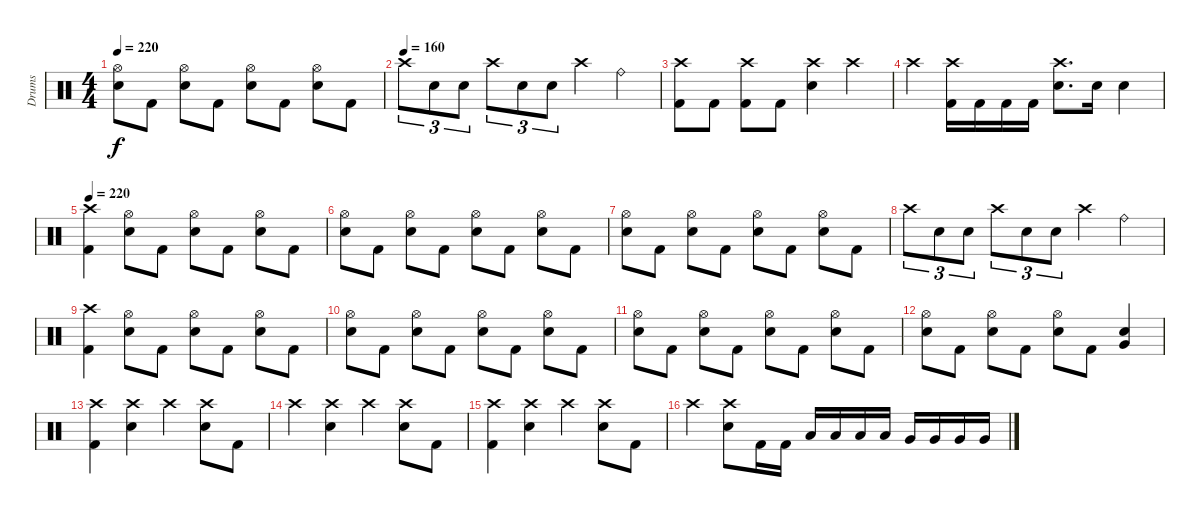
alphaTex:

\track ("Drums" "Drums") {instrument percussion}
\staff {score}
\articulation defaults
\ts (4 4)
\tempo 220
\clef neutral
\ks c
("Hi-Hat (open)" "Electric Snare (hit)").8{dy f} "Kick (hit) 2".8 ("Hi-Hat (open)" "Electric Snare (hit)").8 "Kick (hit) 2".8 ("Hi-Hat (open)" "Electric Snare (hit)").8 "Kick (hit) 2".8 ("Hi-Hat (open)" "Electric Snare (hit)").8 "Kick (hit) 2".8 |
\tempo (160)
"Crash high (hit)".8{tu (3 2)} "Electric Snare (hit)".8{tu (3 2)} "Electric Snare (hit)".8{tu (3 2)} "Crash high (hit)".8{tu (3 2)} "Electric Snare (hit)".8{tu (3 2)} "Electric Snare (hit)".8{tu (3 2)} "Crash high (hit)".4 "Ride (bell)".4 |
("Crash high (hit)" "Kick (hit) 2").8 "Kick (hit) 2".8 ("Crash high (hit)" "Kick (hit) 2").8 "Kick (hit) 2".8 ("Crash high (hit)" "Electric Snare (hit)").4 "Crash high (hit)".4 |
"Crash high (hit)".4 ("Crash high (hit)" "Kick (hit) 2").16 "Kick (hit) 2".16 "Kick (hit) 2".16 "Kick (hit) 2".16 ("Crash high (hit)" "Electric Snare (hit)").8{d} "Electric Snare (hit)".16 "Electric Snare (hit)".4 |
\tempo 220
("Crash high (hit)" "Kick (hit) 2").4 ("Hi-Hat (open)" "Electric Snare (hit)").8 "Kick (hit) 2".8 ("Hi-Hat (open)" "Electric Snare (hit)").8 "Kick (hit) 2".8 ("Hi-Hat (open)" "Electric Snare (hit)").8 "Kick (hit) 2".8 |
("Hi-Hat (open)" "Electric Snare (hit)").8 "Kick (hit) 2".8 ("Hi-Hat (open)" "Electric Snare (hit)").8 "Kick (hit) 2".8 ("Hi-Hat (open)" "Electric Snare (hit)").8 "Kick (hit) 2".8 ("Hi-Hat (open)" "Electric Snare (hit)").8 "Kick (hit) 2".8 |
("Hi-Hat (open)" "Electric Snare (hit)").8 "Kick (hit) 2".8 ("Hi-Hat (open)" "Electric Snare (hit)").8 "Kick (hit) 2".8 ("Hi-Hat (open)" "Electric Snare (hit)").8 "Kick (hit) 2".8 ("Hi-Hat (open)" "Electric Snare (hit)").8 "Kick (hit) 2".8 |
"Crash high (hit)".8{tu (3 2)} "Electric Snare (hit)".8{tu (3 2)} "Electric Snare (hit)".8{tu (3 2)} "Crash high (hit)".8{tu (3 2)} "Electric Snare (hit)".8{tu (3 2)} "Electric Snare (hit)".8{tu (3 2)} "Crash high (hit)".4 "Ride (bell)".4 |
("Crash high (hit)" "Kick (hit) 2").4 ("Hi-Hat (open)" "Electric Snare (hit)").8 "Kick (hit) 2".8 ("Hi-Hat (open)" "Electric Snare (hit)").8 "Kick (hit) 2".8 ("Hi-Hat (open)" "Electric Snare (hit)").8 "Kick (hit) 2".8 |
("Hi-Hat (open)" "Electric Snare (hit)").8 "Kick (hit) 2".8 ("Hi-Hat (open)" "Electric Snare (hit)").8 "Kick (hit) 2".8 ("Hi-Hat (open)" "Electric Snare (hit)").8 "Kick (hit) 2".8 ("Hi-Hat (open)" "Electric Snare (hit)").8 "Kick (hit) 2".8 |
("Hi-Hat (open)" "Electric Snare (hit)").8 "Kick (hit) 2".8 ("Hi-Hat (open)" "Electric Snare (hit)").8 "Kick (hit) 2".8 ("Hi-Hat (open)" "Electric Snare (hit)").8 "Kick (hit) 2".8 ("Hi-Hat (open)" "Electric Snare (hit)").8 "Kick (hit) 2".8 |
("Hi-Hat (open)" "Electric Snare (hit)").8 "Kick (hit) 2".8 ("Hi-Hat (open)" "Electric Snare (hit)").8 "Kick (hit) 2".8 ("Hi-Hat (open)" "Electric Snare (hit)").8 "Kick (hit) 2".8 ("Very Low Tom (hit)" "Electric Snare (hit)").4 |
("Crash high (hit)" "Kick (hit) 2").4 ("Crash high (hit)" "Electric Snare (hit)").4 "Crash high (hit)".4 ("Crash high (hit)" "Electric Snare (hit)").8 "Kick (hit) 2".8 |
"Crash high (hit)".4 ("Crash high (hit)" "Electric Snare (hit)").4 "Crash high (hit)".4 ("Crash high (hit)" "Electric Snare (hit)").8 "Kick (hit) 2".8 |
("Crash high (hit)" "Kick (hit) 2").4 ("Crash high (hit)" "Electric Snare (hit)").4 "Crash high (hit)".4 ("Crash high (hit)" "Electric Snare (hit)").8 "Kick (hit) 2".8 |
"Crash high (hit)".4 ("Crash high (hit)" "Electric Snare (hit)").8 "Kick (hit) 2".16 "Kick (hit) 2".16 "Low Tom (hit)".16 "Low Tom (hit)".16 "Low Tom (hit)".16 "Low Tom (hit)".16 "Very Low Tom (hit)".16 "Very Low Tom (hit)".16 "Very Low Tom (hit)".16 "Very Low Tom (hit)".16
